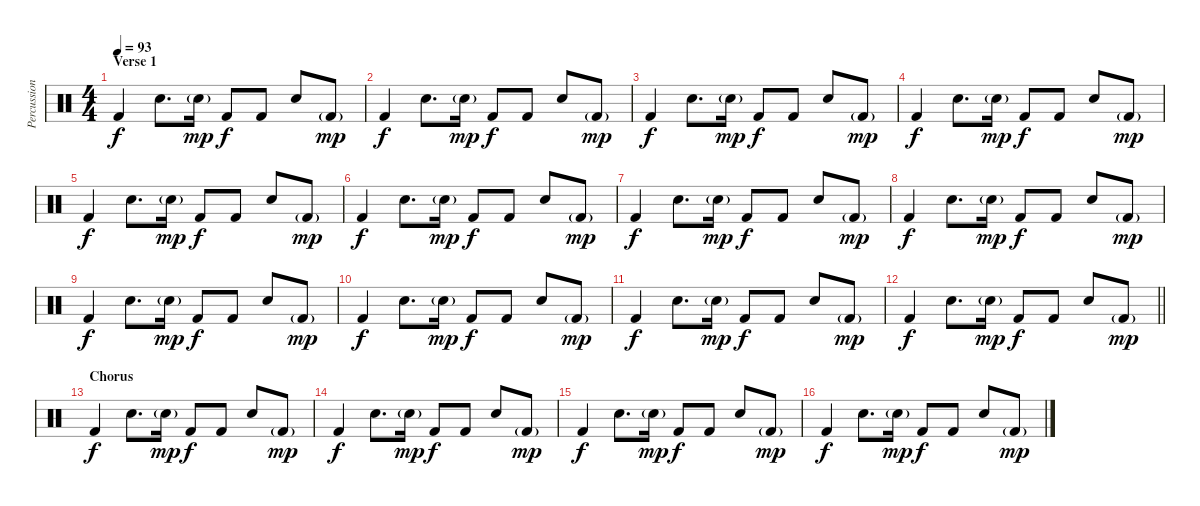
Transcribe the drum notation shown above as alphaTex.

\track ("Percussion" "Percussion") {instrument percussion}
\staff {score}
\articulation defaults
\ts (4 4)
\section ("" "Verse 1")
\tempo 93
\clef neutral
\ks c "Kick (hit) 2".4{dy f} "Snare (hit) 2".8{d} "Snare (hit) 2"{g}.16{dy mp} "Kick (hit) 2".8{dy f} "Kick (hit) 2".8 "Snare (hit) 2".8 "Kick (hit) 2"{g}.8{dy mp}
|
"Kick (hit) 2".4{dy f} "Snare (hit) 2".8{d} "Snare (hit) 2"{g}.16{dy mp} "Kick (hit) 2".8{dy f} "Kick (hit) 2".8 "Snare (hit) 2".8 "Kick (hit) 2"{g}.8{dy mp} |
"Kick (hit) 2".4{dy f} "Snare (hit) 2".8{d} "Snare (hit) 2"{g}.16{dy mp} "Kick (hit) 2".8{dy f} "Kick (hit) 2".8 "Snare (hit) 2".8 "Kick (hit) 2"{g}.8{dy mp} |
"Kick (hit) 2".4{dy f} "Snare (hit) 2".8{d} "Snare (hit) 2"{g}.16{dy mp} "Kick (hit) 2".8{dy f} "Kick (hit) 2".8 "Snare (hit) 2".8 "Kick (hit) 2"{g}.8{dy mp} |
"Kick (hit) 2".4{dy f} "Snare (hit) 2".8{d} "Snare (hit) 2"{g}.16{dy mp} "Kick (hit) 2".8{dy f} "Kick (hit) 2".8 "Snare (hit) 2".8 "Kick (hit) 2"{g}.8{dy mp} |
"Kick (hit) 2".4{dy f} "Snare (hit) 2".8{d} "Snare (hit) 2"{g}.16{dy mp} "Kick (hit) 2".8{dy f} "Kick (hit) 2".8 "Snare (hit) 2".8 "Kick (hit) 2"{g}.8{dy mp} |
"Kick (hit) 2".4{dy f} "Snare (hit) 2".8{d} "Snare (hit) 2"{g}.16{dy mp} "Kick (hit) 2".8{dy f} "Kick (hit) 2".8 "Snare (hit) 2".8 "Kick (hit) 2"{g}.8{dy mp} |
"Kick (hit) 2".4{dy f} "Snare (hit) 2".8{d} "Snare (hit) 2"{g}.16{dy mp} "Kick (hit) 2".8{dy f} "Kick (hit) 2".8 "Snare (hit) 2".8 "Kick (hit) 2"{g}.8{dy mp} |
"Kick (hit) 2".4{dy f} "Snare (hit) 2".8{d} "Snare (hit) 2"{g}.16{dy mp} "Kick (hit) 2".8{dy f} "Kick (hit) 2".8 "Snare (hit) 2".8 "Kick (hit) 2"{g}.8{dy mp} |
"Kick (hit) 2".4{dy f} "Snare (hit) 2".8{d} "Snare (hit) 2"{g}.16{dy mp} "Kick (hit) 2".8{dy f} "Kick (hit) 2".8 "Snare (hit) 2".8 "Kick (hit) 2"{g}.8{dy mp} |
"Kick (hit) 2".4{dy f} "Snare (hit) 2".8{d} "Snare (hit) 2"{g}.16{dy mp} "Kick (hit) 2".8{dy f} "Kick (hit) 2".8 "Snare (hit) 2".8 "Kick (hit) 2"{g}.8{dy mp} |
\barLineRight lightlight "Kick (hit) 2".4{dy f} "Snare (hit) 2".8{d} "Snare (hit) 2"{g}.16{dy mp} "Kick (hit) 2".8{dy f} "Kick (hit) 2".8 "Snare (hit) 2".8 "Kick (hit) 2"{g}.8{dy mp}
|
\section ("" "Chorus")
"Kick (hit) 2".4{dy f} "Snare (hit) 2".8{d} "Snare (hit) 2"{g}.16{dy mp} "Kick (hit) 2".8{dy f} "Kick (hit) 2".8 "Snare (hit) 2".8 "Kick (hit) 2"{g}.8{dy mp} |
"Kick (hit) 2".4{dy f} "Snare (hit) 2".8{d} "Snare (hit) 2"{g}.16{dy mp} "Kick (hit) 2".8{dy f} "Kick (hit) 2".8 "Snare (hit) 2".8 "Kick (hit) 2"{g}.8{dy mp} |
"Kick (hit) 2".4{dy f} "Snare (hit) 2".8{d} "Snare (hit) 2"{g}.16{dy mp} "Kick (hit) 2".8{dy f} "Kick (hit) 2".8 "Snare (hit) 2".8 "Kick (hit) 2"{g}.8{dy mp} |
"Kick (hit) 2".4{dy f} "Snare (hit) 2".8{d} "Snare (hit) 2"{g}.16{dy mp} "Kick (hit) 2".8{dy f} "Kick (hit) 2".8 "Snare (hit) 2".8 "Kick (hit) 2"{g}.8{dy mp}
